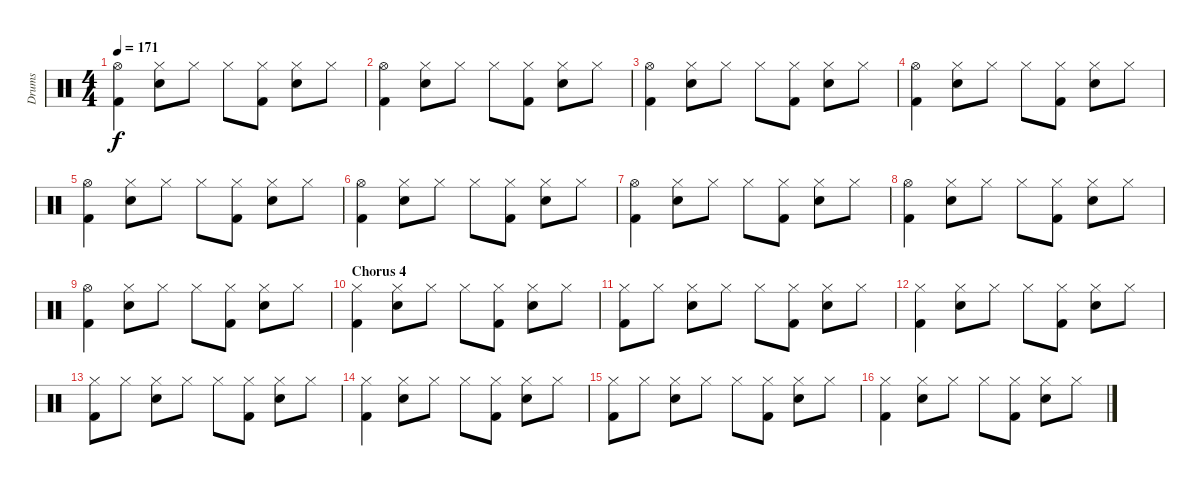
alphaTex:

\track ("Drums" "Drums") {instrument percussion}
\staff {score}
\articulation defaults
\ts (4 4)
\tempo 171
\clef neutral
\ks c
("Hi-Hat (open)" "Kick (hit) 2").4{dy f} ("Hi-Hat (closed)" "Electric Snare (hit)").8 "Hi-Hat (closed)".8 "Hi-Hat (closed)".8 ("Hi-Hat (closed)" "Kick (hit) 2").8 ("Hi-Hat (closed)" "Electric Snare (hit)").8 "Hi-Hat (closed)".8 |
("Hi-Hat (open)" "Kick (hit) 2").4 ("Hi-Hat (closed)" "Electric Snare (hit)").8 "Hi-Hat (closed)".8 "Hi-Hat (closed)".8 ("Hi-Hat (closed)" "Kick (hit) 2").8 ("Hi-Hat (closed)" "Electric Snare (hit)").8 "Hi-Hat (closed)".8 |
("Hi-Hat (open)" "Kick (hit) 2").4 ("Hi-Hat (closed)" "Electric Snare (hit)").8 "Hi-Hat (closed)".8 "Hi-Hat (closed)".8 ("Hi-Hat (closed)" "Kick (hit) 2").8 ("Hi-Hat (closed)" "Electric Snare (hit)").8 "Hi-Hat (closed)".8 |
("Hi-Hat (open)" "Kick (hit) 2").4 ("Hi-Hat (closed)" "Electric Snare (hit)").8 "Hi-Hat (closed)".8 "Hi-Hat (closed)".8 ("Hi-Hat (closed)" "Kick (hit) 2").8 ("Hi-Hat (closed)" "Electric Snare (hit)").8 "Hi-Hat (closed)".8 |
("Hi-Hat (open)" "Kick (hit) 2").4 ("Hi-Hat (closed)" "Electric Snare (hit)").8 "Hi-Hat (closed)".8 "Hi-Hat (closed)".8 ("Hi-Hat (closed)" "Kick (hit) 2").8 ("Hi-Hat (closed)" "Electric Snare (hit)").8 "Hi-Hat (closed)".8 |
("Hi-Hat (open)" "Kick (hit) 2").4 ("Hi-Hat (closed)" "Electric Snare (hit)").8 "Hi-Hat (closed)".8 "Hi-Hat (closed)".8 ("Hi-Hat (closed)" "Kick (hit) 2").8 ("Hi-Hat (closed)" "Electric Snare (hit)").8 "Hi-Hat (closed)".8 |
("Hi-Hat (open)" "Kick (hit) 2").4 ("Hi-Hat (closed)" "Electric Snare (hit)").8 "Hi-Hat (closed)".8 "Hi-Hat (closed)".8 ("Hi-Hat (closed)" "Kick (hit) 2").8 ("Hi-Hat (closed)" "Electric Snare (hit)").8 "Hi-Hat (closed)".8 |
("Hi-Hat (open)" "Kick (hit) 2").4 ("Hi-Hat (closed)" "Electric Snare (hit)").8 "Hi-Hat (closed)".8 "Hi-Hat (closed)".8 ("Hi-Hat (closed)" "Kick (hit) 2").8 ("Hi-Hat (closed)" "Electric Snare (hit)").8 "Hi-Hat (closed)".8 |
("Hi-Hat (open)" "Kick (hit) 2").4 ("Hi-Hat (closed)" "Electric Snare (hit)").8 "Hi-Hat (closed)".8 "Hi-Hat (closed)".8 ("Hi-Hat (closed)" "Kick (hit) 2").8 ("Hi-Hat (closed)" "Electric Snare (hit)").8 "Hi-Hat (closed)".8 |
\section ("" "Chorus 4")
("Hi-Hat (closed)" "Kick (hit) 2").4 ("Hi-Hat (closed)" "Electric Snare (hit)").8 "Hi-Hat (closed)".8 "Hi-Hat (closed)".8 ("Hi-Hat (closed)" "Kick (hit) 2").8 ("Hi-Hat (closed)" "Electric Snare (hit)").8 "Hi-Hat (closed)".8 |
("Hi-Hat (closed)" "Kick (hit) 2").8 "Hi-Hat (closed)".8 ("Hi-Hat (closed)" "Electric Snare (hit)").8 "Hi-Hat (closed)".8 "Hi-Hat (closed)".8 ("Hi-Hat (closed)" "Kick (hit) 2").8 ("Hi-Hat (closed)" "Electric Snare (hit)").8 "Hi-Hat (closed)".8 |
("Hi-Hat (closed)" "Kick (hit) 2").4 ("Hi-Hat (closed)" "Electric Snare (hit)").8 "Hi-Hat (closed)".8 "Hi-Hat (closed)".8 ("Hi-Hat (closed)" "Kick (hit) 2").8 ("Hi-Hat (closed)" "Electric Snare (hit)").8 "Hi-Hat (closed)".8 |
("Hi-Hat (closed)" "Kick (hit) 2").8 "Hi-Hat (closed)".8 ("Hi-Hat (closed)" "Electric Snare (hit)").8 "Hi-Hat (closed)".8 "Hi-Hat (closed)".8 ("Hi-Hat (closed)" "Kick (hit) 2").8 ("Hi-Hat (closed)" "Electric Snare (hit)").8 "Hi-Hat (closed)".8 |
("Hi-Hat (closed)" "Kick (hit) 2").4 ("Hi-Hat (closed)" "Electric Snare (hit)").8 "Hi-Hat (closed)".8 "Hi-Hat (closed)".8 ("Hi-Hat (closed)" "Kick (hit) 2").8 ("Hi-Hat (closed)" "Electric Snare (hit)").8 "Hi-Hat (closed)".8 |
("Hi-Hat (closed)" "Kick (hit) 2").8 "Hi-Hat (closed)".8 ("Hi-Hat (closed)" "Electric Snare (hit)").8 "Hi-Hat (closed)".8 "Hi-Hat (closed)".8 ("Hi-Hat (closed)" "Kick (hit) 2").8 ("Hi-Hat (closed)" "Electric Snare (hit)").8 "Hi-Hat (closed)".8 |
("Hi-Hat (closed)" "Kick (hit) 2").4 ("Hi-Hat (closed)" "Electric Snare (hit)").8 "Hi-Hat (closed)".8 "Hi-Hat (closed)".8 ("Hi-Hat (closed)" "Kick (hit) 2").8 ("Hi-Hat (closed)" "Electric Snare (hit)").8 "Hi-Hat (closed)".8
